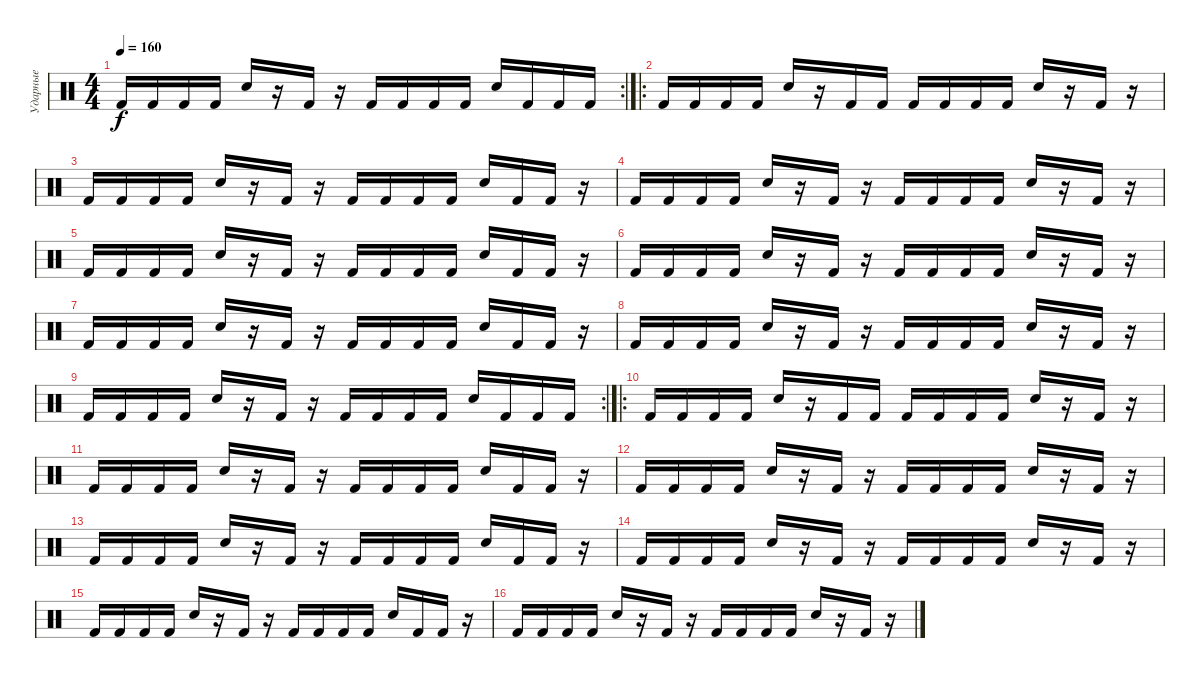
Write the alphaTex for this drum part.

\track ("Ударные" "Ударные") {instrument percussion}
\staff {score}
\articulation defaults
\rc 2
\ts (4 4)
\tempo 160
\clef neutral
\ks c "Kick (hit) 2".16{dy f} "Kick (hit) 2".16 "Kick (hit) 2".16 "Kick (hit) 2".16 "Electric Snare (hit)".16
r.16 "Kick (hit) 2".16 r.16 "Kick (hit) 2".16 "Kick (hit) 2".16 "Kick (hit) 2".16 "Kick (hit) 2".16 "Electric Snare (hit)".16 "Kick (hit) 2".16 "Kick (hit) 2".16 "Kick (hit) 2".16 |
\ro "Kick (hit) 2".16 "Kick (hit) 2".16 "Kick (hit) 2".16 "Kick (hit) 2".16 "Electric Snare (hit)".16
r.16 "Kick (hit) 2".16 "Kick (hit) 2".16 "Kick (hit) 2".16 "Kick (hit) 2".16 "Kick (hit) 2".16 "Kick (hit) 2".16 "Electric Snare (hit)".16 r.16 "Kick (hit) 2".16 r.16 |
"Kick (hit) 2".16 "Kick (hit) 2".16 "Kick (hit) 2".16 "Kick (hit) 2".16 "Electric Snare (hit)".16 r.16 "Kick (hit) 2".16 r.16 "Kick (hit) 2".16 "Kick (hit) 2".16 "Kick (hit) 2".16 "Kick (hit) 2".16 "Electric Snare (hit)".16 "Kick (hit) 2".16 "Kick (hit) 2".16 r.16 |
"Kick (hit) 2".16 "Kick (hit) 2".16 "Kick (hit) 2".16 "Kick (hit) 2".16 "Electric Snare (hit)".16 r.16 "Kick (hit) 2".16 r.16 "Kick (hit) 2".16 "Kick (hit) 2".16 "Kick (hit) 2".16 "Kick (hit) 2".16 "Electric Snare (hit)".16 r.16 "Kick (hit) 2".16 r.16 |
"Kick (hit) 2".16 "Kick (hit) 2".16 "Kick (hit) 2".16 "Kick (hit) 2".16 "Electric Snare (hit)".16 r.16 "Kick (hit) 2".16 r.16 "Kick (hit) 2".16 "Kick (hit) 2".16 "Kick (hit) 2".16 "Kick (hit) 2".16 "Electric Snare (hit)".16 "Kick (hit) 2".16 "Kick (hit) 2".16 r.16 |
"Kick (hit) 2".16 "Kick (hit) 2".16 "Kick (hit) 2".16 "Kick (hit) 2".16 "Electric Snare (hit)".16 r.16 "Kick (hit) 2".16 r.16 "Kick (hit) 2".16 "Kick (hit) 2".16 "Kick (hit) 2".16 "Kick (hit) 2".16 "Electric Snare (hit)".16 r.16 "Kick (hit) 2".16 r.16 |
"Kick (hit) 2".16 "Kick (hit) 2".16 "Kick (hit) 2".16 "Kick (hit) 2".16 "Electric Snare (hit)".16 r.16 "Kick (hit) 2".16 r.16 "Kick (hit) 2".16 "Kick (hit) 2".16 "Kick (hit) 2".16 "Kick (hit) 2".16 "Electric Snare (hit)".16 "Kick (hit) 2".16 "Kick (hit) 2".16 r.16 |
"Kick (hit) 2".16 "Kick (hit) 2".16 "Kick (hit) 2".16 "Kick (hit) 2".16 "Electric Snare (hit)".16 r.16 "Kick (hit) 2".16 r.16 "Kick (hit) 2".16 "Kick (hit) 2".16 "Kick (hit) 2".16 "Kick (hit) 2".16 "Electric Snare (hit)".16 r.16 "Kick (hit) 2".16 r.16 |
\rc 2 "Kick (hit) 2".16 "Kick (hit) 2".16 "Kick (hit) 2".16 "Kick (hit) 2".16 "Electric Snare (hit)".16
r.16 "Kick (hit) 2".16 r.16 "Kick (hit) 2".16 "Kick (hit) 2".16 "Kick (hit) 2".16 "Kick (hit) 2".16 "Electric Snare (hit)".16 "Kick (hit) 2".16 "Kick (hit) 2".16 "Kick (hit) 2".16 |
\ro "Kick (hit) 2".16 "Kick (hit) 2".16 "Kick (hit) 2".16 "Kick (hit) 2".16 "Electric Snare (hit)".16
r.16 "Kick (hit) 2".16 "Kick (hit) 2".16 "Kick (hit) 2".16 "Kick (hit) 2".16 "Kick (hit) 2".16 "Kick (hit) 2".16 "Electric Snare (hit)".16 r.16 "Kick (hit) 2".16 r.16 |
"Kick (hit) 2".16 "Kick (hit) 2".16 "Kick (hit) 2".16 "Kick (hit) 2".16 "Electric Snare (hit)".16 r.16 "Kick (hit) 2".16 r.16 "Kick (hit) 2".16 "Kick (hit) 2".16 "Kick (hit) 2".16 "Kick (hit) 2".16 "Electric Snare (hit)".16 "Kick (hit) 2".16 "Kick (hit) 2".16 r.16 |
"Kick (hit) 2".16 "Kick (hit) 2".16 "Kick (hit) 2".16 "Kick (hit) 2".16 "Electric Snare (hit)".16 r.16 "Kick (hit) 2".16 r.16 "Kick (hit) 2".16 "Kick (hit) 2".16 "Kick (hit) 2".16 "Kick (hit) 2".16 "Electric Snare (hit)".16 r.16 "Kick (hit) 2".16 r.16 |
"Kick (hit) 2".16 "Kick (hit) 2".16 "Kick (hit) 2".16 "Kick (hit) 2".16 "Electric Snare (hit)".16 r.16 "Kick (hit) 2".16 r.16 "Kick (hit) 2".16 "Kick (hit) 2".16 "Kick (hit) 2".16 "Kick (hit) 2".16 "Electric Snare (hit)".16 "Kick (hit) 2".16 "Kick (hit) 2".16 r.16 |
"Kick (hit) 2".16 "Kick (hit) 2".16 "Kick (hit) 2".16 "Kick (hit) 2".16 "Electric Snare (hit)".16 r.16 "Kick (hit) 2".16 r.16 "Kick (hit) 2".16 "Kick (hit) 2".16 "Kick (hit) 2".16 "Kick (hit) 2".16 "Electric Snare (hit)".16 r.16 "Kick (hit) 2".16 r.16 |
"Kick (hit) 2".16 "Kick (hit) 2".16 "Kick (hit) 2".16 "Kick (hit) 2".16 "Electric Snare (hit)".16 r.16 "Kick (hit) 2".16 r.16 "Kick (hit) 2".16 "Kick (hit) 2".16 "Kick (hit) 2".16 "Kick (hit) 2".16 "Electric Snare (hit)".16 "Kick (hit) 2".16 "Kick (hit) 2".16 r.16 |
"Kick (hit) 2".16 "Kick (hit) 2".16 "Kick (hit) 2".16 "Kick (hit) 2".16 "Electric Snare (hit)".16 r.16 "Kick (hit) 2".16 r.16 "Kick (hit) 2".16 "Kick (hit) 2".16 "Kick (hit) 2".16 "Kick (hit) 2".16 "Electric Snare (hit)".16 r.16 "Kick (hit) 2".16 r.16
